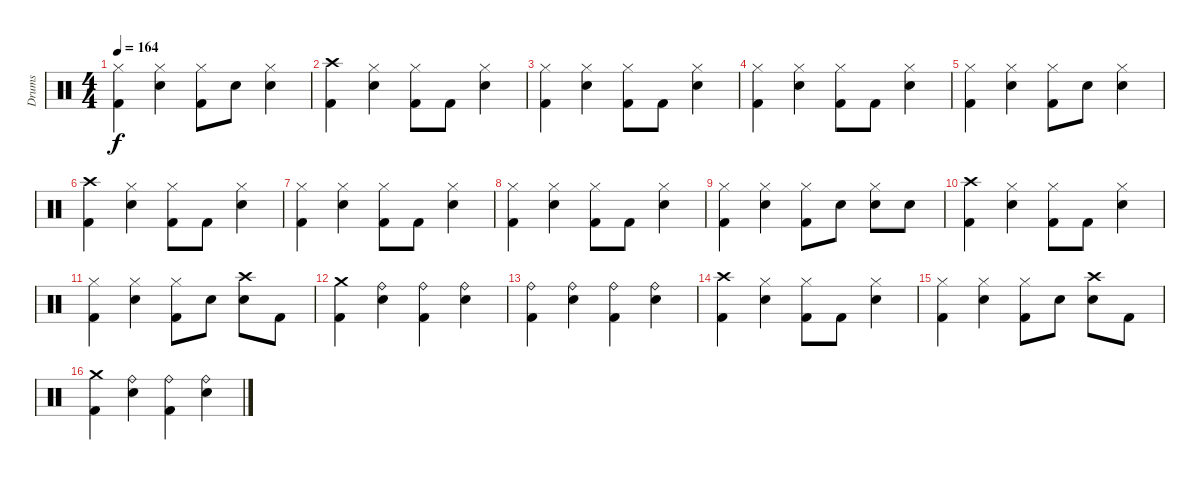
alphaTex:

\track ("Drums" "Drums") {instrument percussion}
\staff {score}
\articulation defaults
\ts (4 4)
\tempo 164
\clef neutral
\ks c
("Kick (hit) 2" "Hi-Hat (closed)").4{dy f} ("Snare (hit) 2" "Hi-Hat (closed)").4 ("Kick (hit) 2" "Hi-Hat (closed)").8 "Snare (hit) 2".8 ("Snare (hit) 2" "Hi-Hat (closed)").4 |
("Kick (hit) 2" "Crash high (hit)").4 ("Snare (hit) 2" "Hi-Hat (closed)").4 ("Kick (hit) 2" "Hi-Hat (closed)").8 "Kick (hit) 2".8 ("Snare (hit) 2" "Hi-Hat (closed)").4 |
("Kick (hit) 2" "Hi-Hat (closed)").4 ("Snare (hit) 2" "Hi-Hat (closed)").4 ("Kick (hit) 2" "Hi-Hat (closed)").8 "Kick (hit) 2".8 ("Snare (hit) 2" "Hi-Hat (closed)").4 |
("Kick (hit) 2" "Hi-Hat (closed)").4 ("Snare (hit) 2" "Hi-Hat (closed)").4 ("Kick (hit) 2" "Hi-Hat (closed)").8 "Kick (hit) 2".8 ("Snare (hit) 2" "Hi-Hat (closed)").4 |
("Kick (hit) 2" "Hi-Hat (closed)").4 ("Snare (hit) 2" "Hi-Hat (closed)").4 ("Kick (hit) 2" "Hi-Hat (closed)").8 "Snare (hit) 2".8 ("Snare (hit) 2" "Hi-Hat (closed)").4 |
("Kick (hit) 2" "Crash high (hit)").4 ("Snare (hit) 2" "Hi-Hat (closed)").4 ("Kick (hit) 2" "Hi-Hat (closed)").8 "Kick (hit) 2".8 ("Snare (hit) 2" "Hi-Hat (closed)").4 |
("Kick (hit) 2" "Hi-Hat (closed)").4 ("Snare (hit) 2" "Hi-Hat (closed)").4 ("Kick (hit) 2" "Hi-Hat (closed)").8 "Kick (hit) 2".8 ("Snare (hit) 2" "Hi-Hat (closed)").4 |
("Kick (hit) 2" "Hi-Hat (closed)").4 ("Snare (hit) 2" "Hi-Hat (closed)").4 ("Kick (hit) 2" "Hi-Hat (closed)").8 "Kick (hit) 2".8 ("Snare (hit) 2" "Hi-Hat (closed)").4 |
("Kick (hit) 2" "Hi-Hat (closed)").4 ("Snare (hit) 2" "Hi-Hat (closed)").4 ("Kick (hit) 2" "Hi-Hat (closed)").8 "Snare (hit) 2".8 ("Snare (hit) 2" "Hi-Hat (closed)").8 "Snare (hit) 2".8 |
("Kick (hit) 2" "Crash high (hit)").4 ("Snare (hit) 2" "Hi-Hat (closed)").4 ("Kick (hit) 2" "Hi-Hat (closed)").8 "Kick (hit) 2".8 ("Snare (hit) 2" "Hi-Hat (closed)").4 |
("Kick (hit) 2" "Hi-Hat (closed)").4 ("Snare (hit) 2" "Hi-Hat (closed)").4 ("Kick (hit) 2" "Hi-Hat (closed)").8 "Snare (hit) 2".8 ("Snare (hit) 2" "Crash high (hit)").8 "Kick (hit) 2".8 |
("Kick (hit) 2" "Crash medium (hit)").4 ("Snare (hit) 2" "Ride (bell)").4 ("Kick (hit) 2" "Ride (bell)").4 ("Snare (hit) 2" "Ride (bell)").4 |
("Kick (hit) 2" "Ride (bell)").4 ("Snare (hit) 2" "Ride (bell)").4 ("Kick (hit) 2" "Ride (bell)").4 ("Snare (hit) 2" "Ride (bell)").4 |
("Kick (hit) 2" "Crash high (hit)").4 ("Snare (hit) 2" "Hi-Hat (closed)").4 ("Kick (hit) 2" "Hi-Hat (closed)").8 "Kick (hit) 2".8 ("Snare (hit) 2" "Hi-Hat (closed)").4 |
("Kick (hit) 2" "Hi-Hat (closed)").4 ("Snare (hit) 2" "Hi-Hat (closed)").4 ("Kick (hit) 2" "Hi-Hat (closed)").8 "Snare (hit) 2".8 ("Snare (hit) 2" "Crash high (hit)").8 "Kick (hit) 2".8 |
("Kick (hit) 2" "Crash medium (hit)").4 ("Snare (hit) 2" "Ride (bell)").4 ("Kick (hit) 2" "Ride (bell)").4 ("Snare (hit) 2" "Ride (bell)").4
